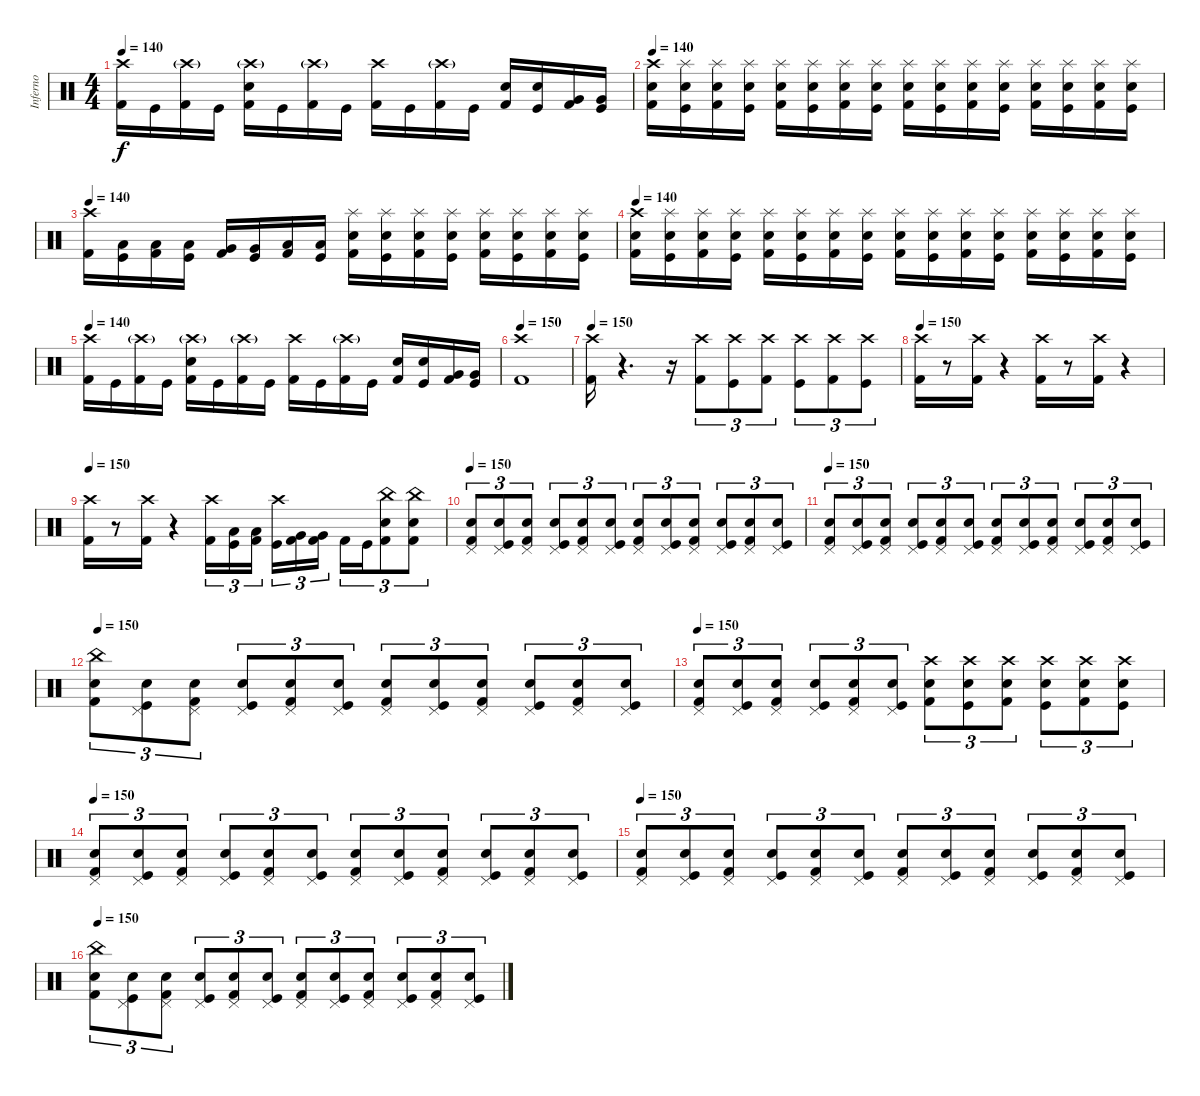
\track ("Inferno" "Inferno") {instrument percussion}
\staff {score}
\articulation defaults
\ts (4 4)
\tempo 140
\clef neutral
\ks c
("Crash high (hit)" "Kick (hit) 2").16{dy f} "Kick (hit)".16 ("Crash high (hit)"{g} "Kick (hit) 2").16 "Kick (hit)".16 ("Crash high (hit)"{g} "Electric Snare (hit)" "Kick (hit) 2").16 "Kick (hit)".16 ("Crash high (hit)"{g} "Kick (hit) 2").16 "Kick (hit)".16 ("Crash high (hit)" "Kick (hit) 2").16 "Kick (hit)".16 ("Crash high (hit)"{g} "Kick (hit) 2").16 "Kick (hit)".16 ("Electric Snare (hit)" "Kick (hit) 2").16 ("Electric Snare (hit)" "Kick (hit)").16 ("Very Low Tom (hit)" "Kick (hit) 2").16 ("Very Low Tom (hit)" "Kick (hit)").16 |
\tempo 140
("Crash high (hit)" "Electric Snare (hit)" "Kick (hit) 2").16 ("Splash (hit)" "Electric Snare (hit)" "Kick (hit)").16 ("Splash (hit)" "Electric Snare (hit)" "Kick (hit) 2").16 ("Splash (hit)" "Electric Snare (hit)" "Kick (hit)").16 ("Splash (hit)" "Electric Snare (hit)" "Kick (hit) 2").16 ("Splash (hit)" "Electric Snare (hit)" "Kick (hit)").16 ("Splash (hit)" "Electric Snare (hit)" "Kick (hit) 2").16 ("Splash (hit)" "Electric Snare (hit)" "Kick (hit)").16 ("Splash (hit)" "Electric Snare (hit)" "Kick (hit) 2").16 ("Splash (hit)" "Electric Snare (hit)" "Kick (hit)").16 ("Splash (hit)" "Electric Snare (hit)" "Kick (hit) 2").16 ("Splash (hit)" "Electric Snare (hit)" "Kick (hit)").16 ("Splash (hit)" "Electric Snare (hit)" "Kick (hit) 2").16 ("Splash (hit)" "Electric Snare (hit)" "Kick (hit)").16 ("Splash (hit)" "Electric Snare (hit)" "Kick (hit) 2").16 ("Splash (hit)" "Electric Snare (hit)" "Kick (hit)").16 |
\tempo 140
("Crash high (hit)" "Kick (hit) 2").16 ("Low Tom (hit)" "Kick (hit)").16 ("Low Tom (hit)" "Kick (hit) 2").16 ("Low Tom (hit)" "Kick (hit)").16 ("Very Low Tom (hit)" "Kick (hit) 2").16 ("Very Low Tom (hit)" "Kick (hit)").16 ("Low Floor Tom (hit)" "Kick (hit) 2").16 ("Low Floor Tom (hit)" "Kick (hit)").16 ("Splash (hit)" "Electric Snare (hit)" "Kick (hit) 2").16 ("Splash (hit)" "Electric Snare (hit)" "Kick (hit)").16 ("Splash (hit)" "Electric Snare (hit)" "Kick (hit) 2").16 ("Splash (hit)" "Electric Snare (hit)" "Kick (hit)").16 ("Splash (hit)" "Electric Snare (hit)" "Kick (hit) 2").16 ("Splash (hit)" "Electric Snare (hit)" "Kick (hit)").16 ("Splash (hit)" "Electric Snare (hit)" "Kick (hit) 2").16 ("Splash (hit)" "Electric Snare (hit)" "Kick (hit)").16 |
\tempo 140
("Crash high (hit)" "Electric Snare (hit)" "Kick (hit) 2").16 ("Splash (hit)" "Electric Snare (hit)" "Kick (hit)").16 ("Splash (hit)" "Electric Snare (hit)" "Kick (hit) 2").16 ("Splash (hit)" "Electric Snare (hit)" "Kick (hit)").16 ("Splash (hit)" "Electric Snare (hit)" "Kick (hit) 2").16 ("Splash (hit)" "Electric Snare (hit)" "Kick (hit)").16 ("Splash (hit)" "Electric Snare (hit)" "Kick (hit) 2").16 ("Splash (hit)" "Electric Snare (hit)" "Kick (hit)").16 ("Splash (hit)" "Electric Snare (hit)" "Kick (hit) 2").16 ("Splash (hit)" "Electric Snare (hit)" "Kick (hit)").16 ("Splash (hit)" "Electric Snare (hit)" "Kick (hit) 2").16 ("Splash (hit)" "Electric Snare (hit)" "Kick (hit)").16 ("Splash (hit)" "Electric Snare (hit)" "Kick (hit) 2").16 ("Splash (hit)" "Electric Snare (hit)" "Kick (hit)").16 ("Splash (hit)" "Electric Snare (hit)" "Kick (hit) 2").16 ("Splash (hit)" "Electric Snare (hit)" "Kick (hit)").16 |
\tempo 140
("Crash high (hit)" "Kick (hit) 2").16 "Kick (hit)".16 ("Crash high (hit)"{g} "Kick (hit) 2").16 "Kick (hit)".16 ("Crash high (hit)"{g} "Electric Snare (hit)" "Kick (hit) 2").16 "Kick (hit)".16 ("Crash high (hit)"{g} "Kick (hit) 2").16 "Kick (hit)".16 ("Crash high (hit)" "Kick (hit) 2").16 "Kick (hit)".16 ("Crash high (hit)"{g} "Kick (hit) 2").16 "Kick (hit)".16 ("Electric Snare (hit)" "Kick (hit) 2").16 ("Electric Snare (hit)" "Kick (hit)").16 ("Very Low Tom (hit)" "Kick (hit) 2").16 ("Very Low Tom (hit)" "Kick (hit)").16 |
\tempo 150
("Crash high (hit)" "Kick (hit) 2").1 |
\tempo 150
("Crash high (hit)" "Kick (hit) 2").16 r.4{d} r.16 ("Crash high (hit)" "Kick (hit) 2").8{tu (3 2)} ("Crash high (hit)" "Kick (hit)").8{tu (3 2)} ("Crash high (hit)" "Kick (hit) 2").8{tu (3 2)} ("Crash high (hit)" "Kick (hit)").8{tu (3 2)} ("Crash high (hit)" "Kick (hit) 2").8{tu (3 2)} ("Crash high (hit)" "Kick (hit)").8{tu (3 2)} |
\tempo 150
("Crash high (hit)" "Kick (hit) 2").16 r.8 ("Crash high (hit)" "Kick (hit) 2").16 r.4 ("Crash high (hit)" "Kick (hit) 2").16 r.8 ("Crash high (hit)" "Kick (hit) 2").16 r.4 |
\tempo 150
("Crash high (hit)" "Kick (hit) 2").16 r.8 ("Crash high (hit)" "Kick (hit) 2").16 r.4 ("Crash high (hit)" "Kick (hit) 2").16{tu (3 2)} ("Low Tom (hit)" "Kick (hit)").16{tu (3 2)} ("Low Tom (hit)" "Kick (hit) 2").16{tu (3 2)} ("Crash high (hit)" "Kick (hit)").16{tu (3 2)} ("Very Low Tom (hit)" "Kick (hit) 2").16{tu (3 2)} ("Very Low Tom (hit)" "Kick (hit) 2").16{tu (3 2)} "Kick (hit) 2".16{tu (3 2)} "Kick (hit)".16{tu (3 2)} ("China (hit)" "Electric Snare (hit)" "Kick (hit) 2").8{tu (3 2)} ("China (hit)" "Electric Snare (hit)" "Kick (hit) 2").8{tu (3 2)} |
\tempo 150
("Pedal Hi-Hat (hit)" "Electric Snare (hit)" "Kick (hit) 2").8{tu (3 2)} ("Pedal Hi-Hat (hit)" "Electric Snare (hit)" "Kick (hit)").8{tu (3 2)} ("Pedal Hi-Hat (hit)" "Electric Snare (hit)" "Kick (hit) 2").8{tu (3 2)} ("Pedal Hi-Hat (hit)" "Electric Snare (hit)" "Kick (hit)").8{tu (3 2)} ("Pedal Hi-Hat (hit)" "Electric Snare (hit)" "Kick (hit) 2").8{tu (3 2)} ("Pedal Hi-Hat (hit)" "Electric Snare (hit)" "Kick (hit)").8{tu (3 2)} ("Pedal Hi-Hat (hit)" "Electric Snare (hit)" "Kick (hit) 2").8{tu (3 2)} ("Pedal Hi-Hat (hit)" "Electric Snare (hit)" "Kick (hit)").8{tu (3 2)} ("Pedal Hi-Hat (hit)" "Electric Snare (hit)" "Kick (hit) 2").8{tu (3 2)} ("Pedal Hi-Hat (hit)" "Electric Snare (hit)" "Kick (hit)").8{tu (3 2)} ("Pedal Hi-Hat (hit)" "Electric Snare (hit)" "Kick (hit) 2").8{tu (3 2)} ("Pedal Hi-Hat (hit)" "Electric Snare (hit)" "Kick (hit)").8{tu (3 2)} |
\tempo 150
("Pedal Hi-Hat (hit)" "Electric Snare (hit)" "Kick (hit) 2").8{tu (3 2)} ("Pedal Hi-Hat (hit)" "Electric Snare (hit)" "Kick (hit)").8{tu (3 2)} ("Pedal Hi-Hat (hit)" "Electric Snare (hit)" "Kick (hit) 2").8{tu (3 2)} ("Pedal Hi-Hat (hit)" "Electric Snare (hit)" "Kick (hit)").8{tu (3 2)} ("Pedal Hi-Hat (hit)" "Electric Snare (hit)" "Kick (hit) 2").8{tu (3 2)} ("Pedal Hi-Hat (hit)" "Electric Snare (hit)" "Kick (hit)").8{tu (3 2)} ("Pedal Hi-Hat (hit)" "Electric Snare (hit)" "Kick (hit) 2").8{tu (3 2)} ("Pedal Hi-Hat (hit)" "Electric Snare (hit)" "Kick (hit)").8{tu (3 2)} ("Pedal Hi-Hat (hit)" "Electric Snare (hit)" "Kick (hit) 2").8{tu (3 2)} ("Pedal Hi-Hat (hit)" "Electric Snare (hit)" "Kick (hit)").8{tu (3 2)} ("Pedal Hi-Hat (hit)" "Electric Snare (hit)" "Kick (hit) 2").8{tu (3 2)} ("Pedal Hi-Hat (hit)" "Electric Snare (hit)" "Kick (hit)").8{tu (3 2)} |
\tempo 150
("China (hit)" "Electric Snare (hit)" "Kick (hit) 2").8{tu (3 2)} ("Pedal Hi-Hat (hit)" "Electric Snare (hit)" "Kick (hit)").8{tu (3 2)} ("Pedal Hi-Hat (hit)" "Electric Snare (hit)" "Kick (hit) 2").8{tu (3 2)} ("Pedal Hi-Hat (hit)" "Electric Snare (hit)" "Kick (hit)").8{tu (3 2)} ("Pedal Hi-Hat (hit)" "Electric Snare (hit)" "Kick (hit) 2").8{tu (3 2)} ("Pedal Hi-Hat (hit)" "Electric Snare (hit)" "Kick (hit)").8{tu (3 2)} ("Pedal Hi-Hat (hit)" "Electric Snare (hit)" "Kick (hit) 2").8{tu (3 2)} ("Pedal Hi-Hat (hit)" "Electric Snare (hit)" "Kick (hit)").8{tu (3 2)} ("Pedal Hi-Hat (hit)" "Electric Snare (hit)" "Kick (hit) 2").8{tu (3 2)} ("Pedal Hi-Hat (hit)" "Electric Snare (hit)" "Kick (hit)").8{tu (3 2)} ("Pedal Hi-Hat (hit)" "Electric Snare (hit)" "Kick (hit) 2").8{tu (3 2)} ("Pedal Hi-Hat (hit)" "Electric Snare (hit)" "Kick (hit)").8{tu (3 2)} |
\tempo 150
("Pedal Hi-Hat (hit)" "Electric Snare (hit)" "Kick (hit) 2").8{tu (3 2)} ("Pedal Hi-Hat (hit)" "Electric Snare (hit)" "Kick (hit)").8{tu (3 2)} ("Pedal Hi-Hat (hit)" "Electric Snare (hit)" "Kick (hit) 2").8{tu (3 2)} ("Pedal Hi-Hat (hit)" "Electric Snare (hit)" "Kick (hit)").8{tu (3 2)} ("Pedal Hi-Hat (hit)" "Electric Snare (hit)" "Kick (hit) 2").8{tu (3 2)} ("Pedal Hi-Hat (hit)" "Electric Snare (hit)" "Kick (hit)").8{tu (3 2)} ("Crash high (hit)" "Electric Snare (hit)" "Kick (hit) 2").8{tu (3 2)} ("Crash high (hit)" "Electric Snare (hit)" "Kick (hit)").8{tu (3 2)} ("Crash high (hit)" "Electric Snare (hit)" "Kick (hit) 2").8{tu (3 2)} ("Crash high (hit)" "Electric Snare (hit)" "Kick (hit)").8{tu (3 2)} ("Crash high (hit)" "Electric Snare (hit)" "Kick (hit) 2").8{tu (3 2)} ("Crash high (hit)" "Electric Snare (hit)" "Kick (hit)").8{tu (3 2)} |
\tempo 150
("Pedal Hi-Hat (hit)" "Electric Snare (hit)" "Kick (hit) 2").8{tu (3 2)} ("Pedal Hi-Hat (hit)" "Electric Snare (hit)" "Kick (hit)").8{tu (3 2)} ("Pedal Hi-Hat (hit)" "Electric Snare (hit)" "Kick (hit) 2").8{tu (3 2)} ("Pedal Hi-Hat (hit)" "Electric Snare (hit)" "Kick (hit)").8{tu (3 2)} ("Pedal Hi-Hat (hit)" "Electric Snare (hit)" "Kick (hit) 2").8{tu (3 2)} ("Pedal Hi-Hat (hit)" "Electric Snare (hit)" "Kick (hit)").8{tu (3 2)} ("Pedal Hi-Hat (hit)" "Electric Snare (hit)" "Kick (hit) 2").8{tu (3 2)} ("Pedal Hi-Hat (hit)" "Electric Snare (hit)" "Kick (hit)").8{tu (3 2)} ("Pedal Hi-Hat (hit)" "Electric Snare (hit)" "Kick (hit) 2").8{tu (3 2)} ("Pedal Hi-Hat (hit)" "Electric Snare (hit)" "Kick (hit)").8{tu (3 2)} ("Pedal Hi-Hat (hit)" "Electric Snare (hit)" "Kick (hit) 2").8{tu (3 2)} ("Pedal Hi-Hat (hit)" "Electric Snare (hit)" "Kick (hit)").8{tu (3 2)} |
\tempo 150
("Pedal Hi-Hat (hit)" "Electric Snare (hit)" "Kick (hit) 2").8{tu (3 2)} ("Pedal Hi-Hat (hit)" "Electric Snare (hit)" "Kick (hit)").8{tu (3 2)} ("Pedal Hi-Hat (hit)" "Electric Snare (hit)" "Kick (hit) 2").8{tu (3 2)} ("Pedal Hi-Hat (hit)" "Electric Snare (hit)" "Kick (hit)").8{tu (3 2)} ("Pedal Hi-Hat (hit)" "Electric Snare (hit)" "Kick (hit) 2").8{tu (3 2)} ("Pedal Hi-Hat (hit)" "Electric Snare (hit)" "Kick (hit)").8{tu (3 2)} ("Pedal Hi-Hat (hit)" "Electric Snare (hit)" "Kick (hit) 2").8{tu (3 2)} ("Pedal Hi-Hat (hit)" "Electric Snare (hit)" "Kick (hit)").8{tu (3 2)} ("Pedal Hi-Hat (hit)" "Electric Snare (hit)" "Kick (hit) 2").8{tu (3 2)} ("Pedal Hi-Hat (hit)" "Electric Snare (hit)" "Kick (hit)").8{tu (3 2)} ("Pedal Hi-Hat (hit)" "Electric Snare (hit)" "Kick (hit) 2").8{tu (3 2)} ("Pedal Hi-Hat (hit)" "Electric Snare (hit)" "Kick (hit)").8{tu (3 2)} |
\tempo 150
("China (hit)" "Electric Snare (hit)" "Kick (hit) 2").8{tu (3 2)} ("Pedal Hi-Hat (hit)" "Electric Snare (hit)" "Kick (hit)").8{tu (3 2)} ("Pedal Hi-Hat (hit)" "Electric Snare (hit)" "Kick (hit) 2").8{tu (3 2)} ("Pedal Hi-Hat (hit)" "Electric Snare (hit)" "Kick (hit)").8{tu (3 2)} ("Pedal Hi-Hat (hit)" "Electric Snare (hit)" "Kick (hit) 2").8{tu (3 2)} ("Pedal Hi-Hat (hit)" "Electric Snare (hit)" "Kick (hit)").8{tu (3 2)} ("Pedal Hi-Hat (hit)" "Electric Snare (hit)" "Kick (hit) 2").8{tu (3 2)} ("Pedal Hi-Hat (hit)" "Electric Snare (hit)" "Kick (hit)").8{tu (3 2)} ("Pedal Hi-Hat (hit)" "Electric Snare (hit)" "Kick (hit) 2").8{tu (3 2)} ("Pedal Hi-Hat (hit)" "Electric Snare (hit)" "Kick (hit)").8{tu (3 2)} ("Pedal Hi-Hat (hit)" "Electric Snare (hit)" "Kick (hit) 2").8{tu (3 2)} ("Pedal Hi-Hat (hit)" "Electric Snare (hit)" "Kick (hit)").8{tu (3 2)}
